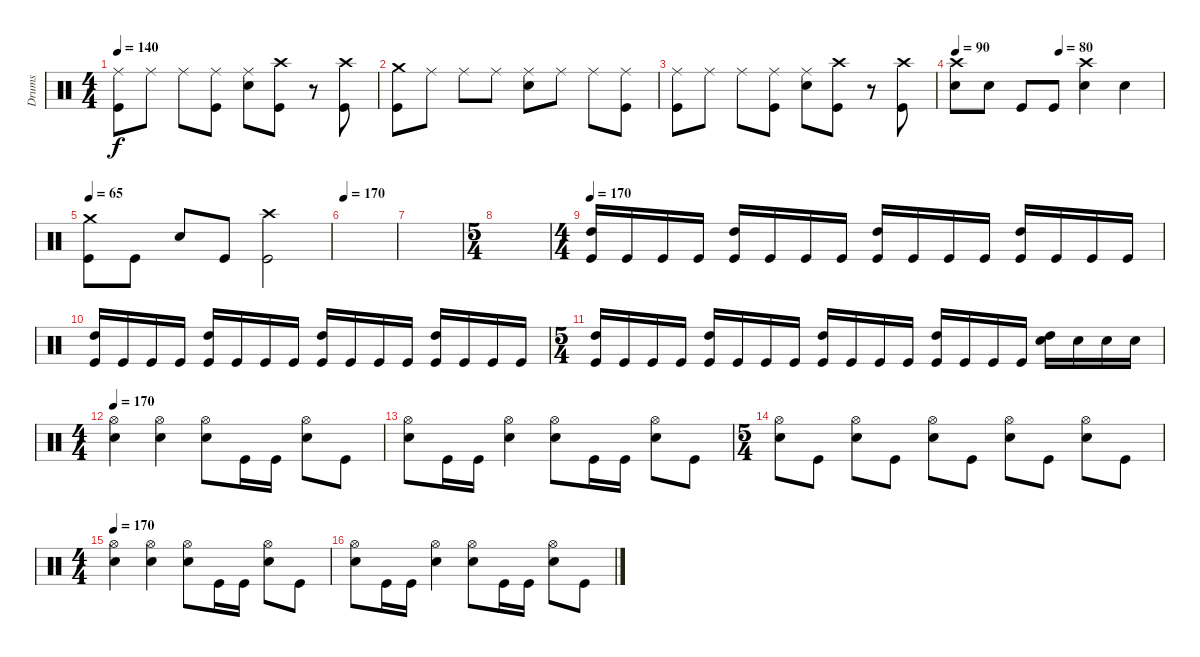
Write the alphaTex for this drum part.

\track ("Drums" "Drums") {instrument percussion}
\staff {score}
\articulation defaults
\ts (4 4)
\tempo 140
\clef neutral
\ks c
("Kick (hit)" "Ride (middle)").8{dy f} "Ride (middle)".8 "Ride (middle)".8 ("Kick (hit)" "Ride (middle)").8 ("Snare (hit) 2" "Ride (middle)").8 ("Kick (hit)" "Crash high (hit)").8 r.8 ("Kick (hit)" "Crash high (hit)").8 |
("Kick (hit)" "Crash medium (hit)").8 "Ride (middle)".8 "Ride (middle)".8 "Ride (middle)".8 ("Snare (hit) 2" "Ride (middle)").8 "Ride (middle)".8 "Ride (middle)".8 ("Kick (hit)" "Ride (middle)").8 |
("Kick (hit)" "Ride (middle)").8 "Ride (middle)".8 "Ride (middle)".8 ("Kick (hit)" "Ride (middle)").8 ("Snare (hit) 2" "Ride (middle)").8 ("Kick (hit)" "Crash high (hit)").8 r.8 ("Kick (hit)" "Crash high (hit)").8 |
\tempo 90
\tempo (80 0.5)
("Snare (hit) 2" "Crash high (hit)").8 "Snare (hit) 2".8 "Kick (hit)".8 "Kick (hit)".8 ("Snare (hit) 2" "Crash high (hit)").4 "Snare (hit) 2".4 |
\tempo 65
("Kick (hit)" "Crash medium (hit)").8 "Kick (hit)".8 "Snare (hit) 2".8 "Kick (hit)".8 ("Kick (hit)" "Crash high (hit)").2 |
\tempo 170
|
|
\ts (5 4)
|
\ts (4 4)
\tempo 170
("Kick (hit)" "High Tom (hit)").16 "Kick (hit)".16 "Kick (hit)".16 "Kick (hit)".16 ("Kick (hit)" "High Tom (hit)").16 "Kick (hit)".16 "Kick (hit)".16 "Kick (hit)".16 ("Kick (hit)" "High Tom (hit)").16 "Kick (hit)".16 "Kick (hit)".16 "Kick (hit)".16 ("Kick (hit)" "High Tom (hit)").16 "Kick (hit)".16 "Kick (hit)".16 "Kick (hit)".16 |
("Kick (hit)" "High Tom (hit)").16 "Kick (hit)".16 "Kick (hit)".16 "Kick (hit)".16 ("Kick (hit)" "High Tom (hit)").16 "Kick (hit)".16 "Kick (hit)".16 "Kick (hit)".16 ("Kick (hit)" "High Tom (hit)").16 "Kick (hit)".16 "Kick (hit)".16 "Kick (hit)".16 ("Kick (hit)" "High Tom (hit)").16 "Kick (hit)".16 "Kick (hit)".16 "Kick (hit)".16 |
\ts (5 4)
("Kick (hit)" "High Tom (hit)").16 "Kick (hit)".16 "Kick (hit)".16 "Kick (hit)".16 ("Kick (hit)" "High Tom (hit)").16 "Kick (hit)".16 "Kick (hit)".16 "Kick (hit)".16 ("Kick (hit)" "High Tom (hit)").16 "Kick (hit)".16 "Kick (hit)".16 "Kick (hit)".16 ("Kick (hit)" "High Tom (hit)").16 "Kick (hit)".16 "Kick (hit)".16 "Kick (hit)".16 ("Snare (hit) 2" "High Tom (hit)").16 "Snare (hit) 2".16 "Snare (hit) 2".16 "Snare (hit) 2".16 |
\ts (4 4)
\tempo 170
("Snare (hit) 2" "Hi-Hat (open)").4 ("Snare (hit) 2" "Hi-Hat (open)").4 ("Snare (hit) 2" "Hi-Hat (open)").8 "Kick (hit)".16 "Kick (hit)".16 ("Snare (hit) 2" "Hi-Hat (open)").8 "Kick (hit)".8 |
("Snare (hit) 2" "Hi-Hat (open)").8 "Kick (hit)".16 "Kick (hit)".16 ("Snare (hit) 2" "Hi-Hat (open)").4 ("Snare (hit) 2" "Hi-Hat (open)").8 "Kick (hit)".16 "Kick (hit)".16 ("Snare (hit) 2" "Hi-Hat (open)").8 "Kick (hit)".8 |
\ts (5 4)
("Snare (hit) 2" "Hi-Hat (open)").8 "Kick (hit)".8 ("Snare (hit) 2" "Hi-Hat (open)").8 "Kick (hit)".8 ("Snare (hit) 2" "Hi-Hat (open)").8 "Kick (hit)".8 ("Snare (hit) 2" "Hi-Hat (open)").8 "Kick (hit)".8 ("Snare (hit) 2" "Hi-Hat (open)").8 "Kick (hit)".8 |
\ts (4 4)
\tempo 170
("Snare (hit) 2" "Hi-Hat (open)").4 ("Snare (hit) 2" "Hi-Hat (open)").4 ("Snare (hit) 2" "Hi-Hat (open)").8 "Kick (hit)".16 "Kick (hit)".16 ("Snare (hit) 2" "Hi-Hat (open)").8 "Kick (hit)".8 |
("Snare (hit) 2" "Hi-Hat (open)").8 "Kick (hit)".16 "Kick (hit)".16 ("Snare (hit) 2" "Hi-Hat (open)").4 ("Snare (hit) 2" "Hi-Hat (open)").8 "Kick (hit)".16 "Kick (hit)".16 ("Snare (hit) 2" "Hi-Hat (open)").8 "Kick (hit)".8
